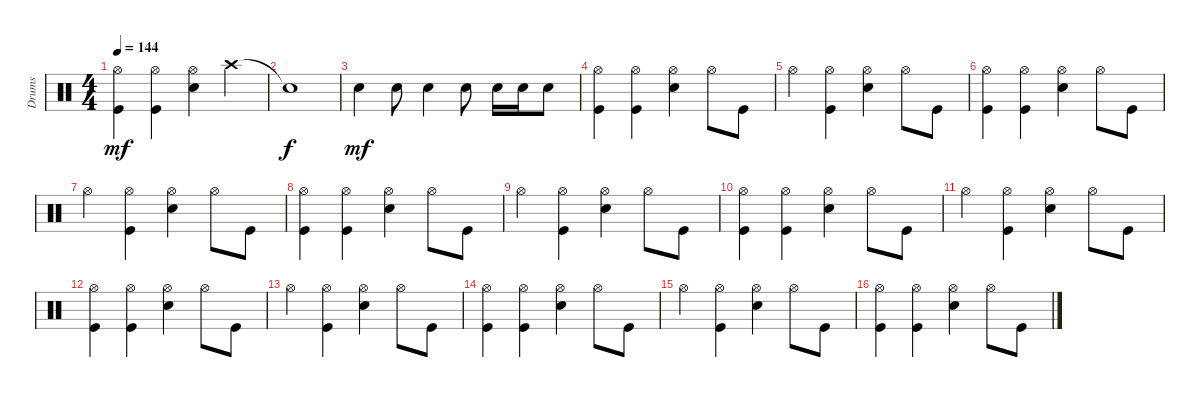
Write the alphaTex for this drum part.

\track ("Drums               " "Drums     ") {instrument percussion}
\staff {score}
\articulation defaults
\ts (4 4)
\tempo 144
\clef neutral
\ks c
("Kick (hit)" "Hi-Hat (open)").4{dy mf} ("Kick (hit)" "Hi-Hat (open)").4 ("Snare (hit) 2" "Hi-Hat (open)").4 "Crash high (hit)".4 |
"Snare (hit)"{t}.1{dy f} |
"Snare (hit) 2".4{dy mf} "Snare (hit) 2".8 "Snare (hit) 2".4 "Snare (hit) 2".8 "Snare (hit) 2".16 "Snare (hit) 2".16 "Snare (hit) 2".8 |
("Kick (hit)" "Hi-Hat (open)").4 ("Kick (hit)" "Hi-Hat (open)").4 ("Snare (hit) 2" "Hi-Hat (open)").4 "Hi-Hat (open)".8 "Kick (hit)".8 |
"Hi-Hat (open)".4 ("Hi-Hat (open)" "Kick (hit)").4 ("Snare (hit) 2" "Hi-Hat (open)").4 "Hi-Hat (open)".8 "Kick (hit)".8 |
("Kick (hit)" "Hi-Hat (open)").4 ("Kick (hit)" "Hi-Hat (open)").4 ("Snare (hit) 2" "Hi-Hat (open)").4 "Hi-Hat (open)".8 "Kick (hit)".8 |
"Hi-Hat (open)".4 ("Hi-Hat (open)" "Kick (hit)").4 ("Snare (hit) 2" "Hi-Hat (open)").4 "Hi-Hat (open)".8 "Kick (hit)".8 |
("Kick (hit)" "Hi-Hat (open)").4 ("Kick (hit)" "Hi-Hat (open)").4 ("Snare (hit) 2" "Hi-Hat (open)").4 "Hi-Hat (open)".8 "Kick (hit)".8 |
"Hi-Hat (open)".4 ("Hi-Hat (open)" "Kick (hit)").4 ("Snare (hit) 2" "Hi-Hat (open)").4 "Hi-Hat (open)".8 "Kick (hit)".8 |
("Kick (hit)" "Hi-Hat (open)").4 ("Kick (hit)" "Hi-Hat (open)").4 ("Snare (hit) 2" "Hi-Hat (open)").4 "Hi-Hat (open)".8 "Kick (hit)".8 |
"Hi-Hat (open)".4 ("Hi-Hat (open)" "Kick (hit)").4 ("Snare (hit) 2" "Hi-Hat (open)").4 "Hi-Hat (open)".8 "Kick (hit)".8 |
("Kick (hit)" "Hi-Hat (open)").4 ("Kick (hit)" "Hi-Hat (open)").4 ("Snare (hit) 2" "Hi-Hat (open)").4 "Hi-Hat (open)".8 "Kick (hit)".8 |
"Hi-Hat (open)".4 ("Hi-Hat (open)" "Kick (hit)").4 ("Snare (hit) 2" "Hi-Hat (open)").4 "Hi-Hat (open)".8 "Kick (hit)".8 |
("Kick (hit)" "Hi-Hat (open)").4 ("Kick (hit)" "Hi-Hat (open)").4 ("Snare (hit) 2" "Hi-Hat (open)").4 "Hi-Hat (open)".8 "Kick (hit)".8 |
"Hi-Hat (open)".4 ("Hi-Hat (open)" "Kick (hit)").4 ("Snare (hit) 2" "Hi-Hat (open)").4 "Hi-Hat (open)".8 "Kick (hit)".8 |
("Kick (hit)" "Hi-Hat (open)").4 ("Kick (hit)" "Hi-Hat (open)").4 ("Snare (hit) 2" "Hi-Hat (open)").4 "Hi-Hat (open)".8 "Kick (hit)".8
